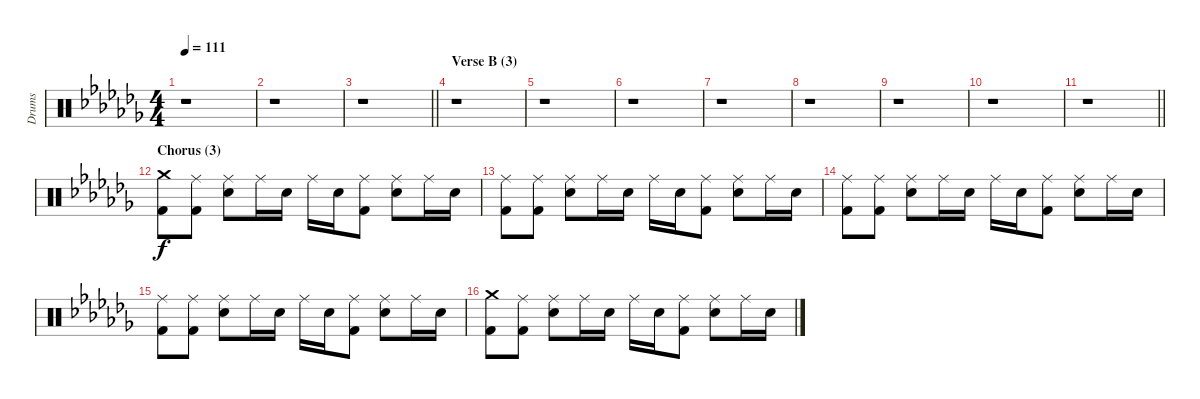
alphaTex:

\track ("Drums" "Drums") {instrument percussion}
\staff {score}
\articulation defaults
\ts (4 4)
\tempo 111
\clef neutral
\ks abminor
r.1{dy f} |
r.1 |
\barLineRight lightlight
r.1 |
\section ("" "Verse B (3)")
r.1 |
r.1 |
r.1 |
r.1 |
r.1 |
r.1 |
r.1 |
\barLineRight lightlight
r.1 |
\section ("" "Chorus (3)")
("Crash medium (hit)" "Kick (hit) 2").8 ("Ride (middle)" "Kick (hit) 2").8 ("Ride (middle)" "Electric Snare (hit)").8 "Ride (middle)".16 "Electric Snare (hit)".16 "Ride (middle)".16 "Electric Snare (hit)".16 ("Ride (middle)" "Kick (hit) 2").8 ("Ride (middle)" "Electric Snare (hit)").8 "Ride (middle)".16 "Electric Snare (hit)".16 |
("Ride (middle)" "Kick (hit) 2").8 ("Ride (middle)" "Kick (hit) 2").8 ("Ride (middle)" "Electric Snare (hit)").8 "Ride (middle)".16 "Electric Snare (hit)".16 "Ride (middle)".16 "Electric Snare (hit)".16 ("Ride (middle)" "Kick (hit) 2").8 ("Ride (middle)" "Electric Snare (hit)").8 "Ride (middle)".16 "Electric Snare (hit)".16 |
("Ride (middle)" "Kick (hit) 2").8 ("Ride (middle)" "Kick (hit) 2").8 ("Ride (middle)" "Electric Snare (hit)").8 "Ride (middle)".16 "Electric Snare (hit)".16 "Ride (middle)".16 "Electric Snare (hit)".16 ("Ride (middle)" "Kick (hit) 2").8 ("Ride (middle)" "Electric Snare (hit)").8 "Ride (middle)".16 "Electric Snare (hit)".16 |
("Ride (middle)" "Kick (hit) 2").8 ("Ride (middle)" "Kick (hit) 2").8 ("Ride (middle)" "Electric Snare (hit)").8 "Ride (middle)".16 "Electric Snare (hit)".16 "Ride (middle)".16 "Electric Snare (hit)".16 ("Ride (middle)" "Kick (hit) 2").8 ("Ride (middle)" "Electric Snare (hit)").8 "Ride (middle)".16 "Electric Snare (hit)".16 |
("Crash medium (hit)" "Kick (hit) 2").8 ("Ride (middle)" "Kick (hit) 2").8 ("Ride (middle)" "Electric Snare (hit)").8 "Ride (middle)".16 "Electric Snare (hit)".16 "Ride (middle)".16 "Electric Snare (hit)".16 ("Ride (middle)" "Kick (hit) 2").8 ("Ride (middle)" "Electric Snare (hit)").8 "Ride (middle)".16 "Electric Snare (hit)".16
